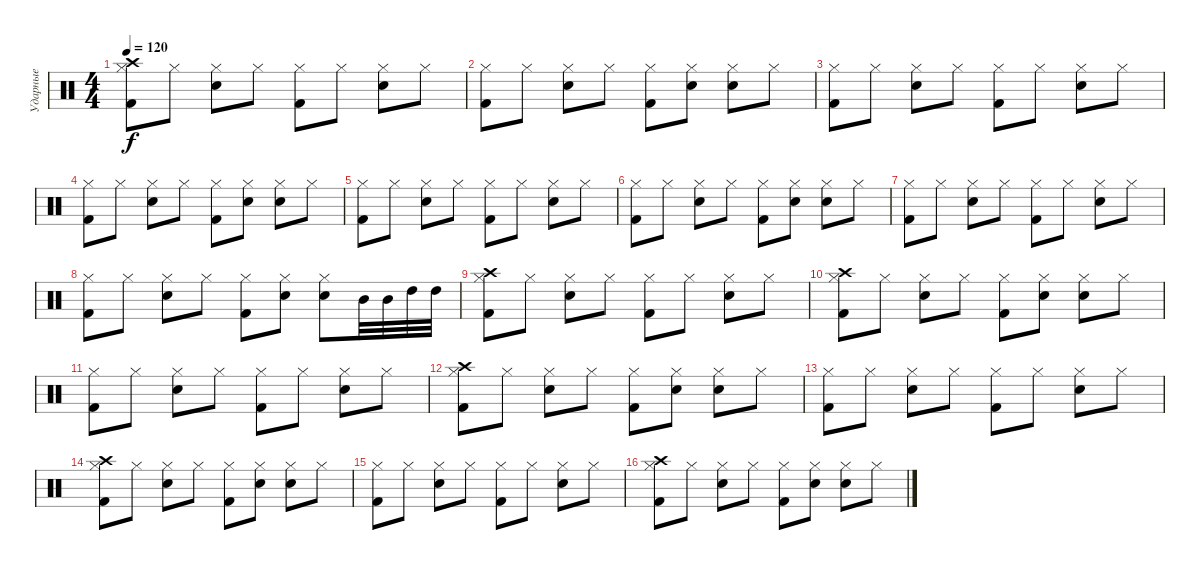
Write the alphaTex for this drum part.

\track ("Ударные" "Ударные") {instrument percussion}
\staff
\articulation defaults
\ts (4 4)
\tempo 120
\clef neutral
\ks c
("Hi-Hat (closed)" "Kick (hit) 2" "Crash high (hit)").8{dy f} "Hi-Hat (closed)".8 ("Hi-Hat (closed)" "Snare (hit) 2").8 "Hi-Hat (closed)".8 ("Hi-Hat (closed)" "Kick (hit) 2").8 "Hi-Hat (closed)".8 ("Hi-Hat (closed)" "Snare (hit) 2").8 "Hi-Hat (closed)".8 |
("Hi-Hat (closed)" "Kick (hit) 2").8 "Hi-Hat (closed)".8 ("Hi-Hat (closed)" "Snare (hit) 2").8 "Hi-Hat (closed)".8 ("Hi-Hat (closed)" "Kick (hit) 2").8 ("Hi-Hat (closed)" "Snare (hit) 2").8 ("Hi-Hat (closed)" "Snare (hit) 2").8 "Hi-Hat (closed)".8 |
("Hi-Hat (closed)" "Kick (hit) 2").8 "Hi-Hat (closed)".8 ("Hi-Hat (closed)" "Snare (hit) 2").8 "Hi-Hat (closed)".8 ("Hi-Hat (closed)" "Kick (hit) 2").8 "Hi-Hat (closed)".8 ("Hi-Hat (closed)" "Snare (hit) 2").8 "Hi-Hat (closed)".8 |
("Hi-Hat (closed)" "Kick (hit) 2").8 "Hi-Hat (closed)".8 ("Hi-Hat (closed)" "Snare (hit) 2").8 "Hi-Hat (closed)".8 ("Hi-Hat (closed)" "Kick (hit) 2").8 ("Hi-Hat (closed)" "Snare (hit) 2").8 ("Hi-Hat (closed)" "Snare (hit) 2").8 "Hi-Hat (closed)".8 |
("Hi-Hat (closed)" "Kick (hit) 2").8 "Hi-Hat (closed)".8 ("Hi-Hat (closed)" "Snare (hit) 2").8 "Hi-Hat (closed)".8 ("Hi-Hat (closed)" "Kick (hit) 2").8 "Hi-Hat (closed)".8 ("Hi-Hat (closed)" "Snare (hit) 2").8 "Hi-Hat (closed)".8 |
("Hi-Hat (closed)" "Kick (hit) 2").8 "Hi-Hat (closed)".8 ("Hi-Hat (closed)" "Snare (hit) 2").8 "Hi-Hat (closed)".8 ("Hi-Hat (closed)" "Kick (hit) 2").8 ("Hi-Hat (closed)" "Snare (hit) 2").8 ("Hi-Hat (closed)" "Snare (hit) 2").8 "Hi-Hat (closed)".8 |
("Hi-Hat (closed)" "Kick (hit) 2").8 "Hi-Hat (closed)".8 ("Hi-Hat (closed)" "Snare (hit) 2").8 "Hi-Hat (closed)".8 ("Hi-Hat (closed)" "Kick (hit) 2").8 "Hi-Hat (closed)".8 ("Hi-Hat (closed)" "Snare (hit) 2").8 "Hi-Hat (closed)".8 |
("Hi-Hat (closed)" "Kick (hit) 2").8 "Hi-Hat (closed)".8 ("Hi-Hat (closed)" "Snare (hit) 2").8 "Hi-Hat (closed)".8 ("Hi-Hat (closed)" "Kick (hit) 2").8 ("Hi-Hat (closed)" "Snare (hit) 2").8 ("Hi-Hat (closed)" "Snare (hit) 2").8 "Mid Tom (hit)".32 "Mid Tom (hit)".32 "High Tom (hit)".32 "High Tom (hit)".32 |
("Hi-Hat (closed)" "Kick (hit) 2" "Crash high (hit)").8 "Hi-Hat (closed)".8 ("Hi-Hat (closed)" "Snare (hit) 2").8 "Hi-Hat (closed)".8 ("Hi-Hat (closed)" "Kick (hit) 2").8 "Hi-Hat (closed)".8 ("Hi-Hat (closed)" "Snare (hit) 2").8 "Hi-Hat (closed)".8 |
("Hi-Hat (closed)" "Crash high (hit)" "Kick (hit) 2").8 "Hi-Hat (closed)".8 ("Hi-Hat (closed)" "Snare (hit) 2").8 "Hi-Hat (closed)".8 ("Hi-Hat (closed)" "Kick (hit) 2").8 ("Hi-Hat (closed)" "Snare (hit) 2").8 ("Hi-Hat (closed)" "Snare (hit) 2").8 "Hi-Hat (closed)".8 |
("Hi-Hat (closed)" "Kick (hit) 2").8 "Hi-Hat (closed)".8 ("Hi-Hat (closed)" "Snare (hit) 2").8 "Hi-Hat (closed)".8 ("Hi-Hat (closed)" "Kick (hit) 2").8 "Hi-Hat (closed)".8 ("Hi-Hat (closed)" "Snare (hit) 2").8 "Hi-Hat (closed)".8 |
("Hi-Hat (closed)" "Crash high (hit)" "Kick (hit) 2").8 "Hi-Hat (closed)".8 ("Hi-Hat (closed)" "Snare (hit) 2").8 "Hi-Hat (closed)".8 ("Hi-Hat (closed)" "Kick (hit) 2").8 ("Hi-Hat (closed)" "Snare (hit) 2").8 ("Hi-Hat (closed)" "Snare (hit) 2").8 "Hi-Hat (closed)".8 |
("Hi-Hat (closed)" "Kick (hit) 2").8 "Hi-Hat (closed)".8 ("Hi-Hat (closed)" "Snare (hit) 2").8 "Hi-Hat (closed)".8 ("Hi-Hat (closed)" "Kick (hit) 2").8 "Hi-Hat (closed)".8 ("Hi-Hat (closed)" "Snare (hit) 2").8 "Hi-Hat (closed)".8 |
("Hi-Hat (closed)" "Crash high (hit)" "Kick (hit) 2").8 "Hi-Hat (closed)".8 ("Hi-Hat (closed)" "Snare (hit) 2").8 "Hi-Hat (closed)".8 ("Hi-Hat (closed)" "Kick (hit) 2").8 ("Hi-Hat (closed)" "Snare (hit) 2").8 ("Hi-Hat (closed)" "Snare (hit) 2").8 "Hi-Hat (closed)".8 |
("Hi-Hat (closed)" "Kick (hit) 2").8 "Hi-Hat (closed)".8 ("Hi-Hat (closed)" "Snare (hit) 2").8 "Hi-Hat (closed)".8 ("Hi-Hat (closed)" "Kick (hit) 2").8 "Hi-Hat (closed)".8 ("Hi-Hat (closed)" "Snare (hit) 2").8 "Hi-Hat (closed)".8 |
("Hi-Hat (closed)" "Kick (hit) 2" "Crash high (hit)").8 "Hi-Hat (closed)".8 ("Hi-Hat (closed)" "Snare (hit) 2").8 "Hi-Hat (closed)".8 ("Hi-Hat (closed)" "Kick (hit) 2").8 ("Hi-Hat (closed)" "Snare (hit) 2").8 ("Hi-Hat (closed)" "Snare (hit) 2").8 "Hi-Hat (closed)".8
